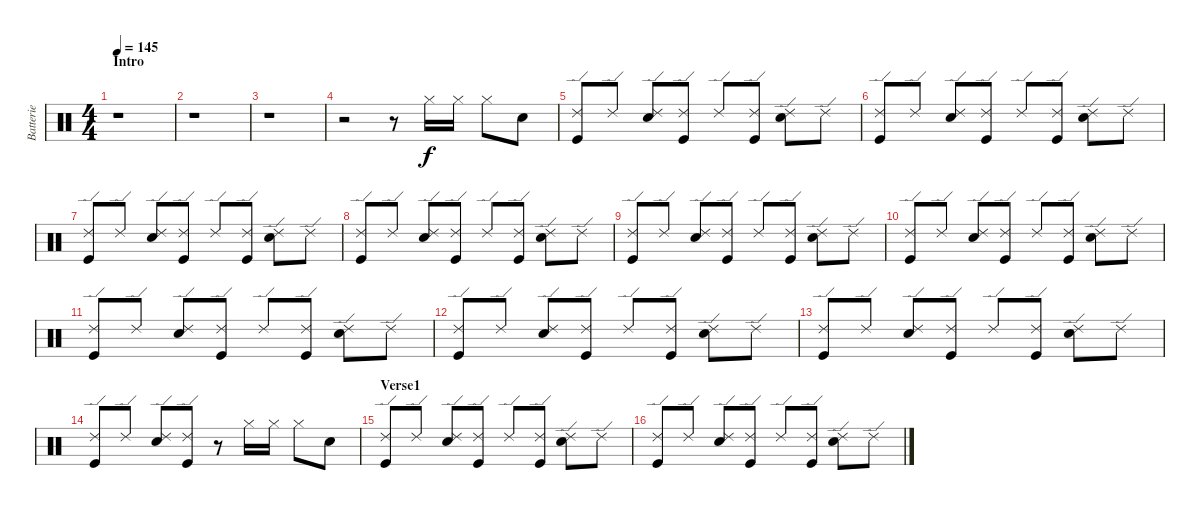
\track ("Batterie" "Batterie") {instrument percussion}
\staff {score}
\articulation defaults
\ts (4 4)
\section ("" "Intro")
\tempo 145
\clef neutral
\ks c
r.1{dy f} |
r.1 |
r.1 |
r.2 r.8 "Hi-Hat (closed)".16 "Hi-Hat (closed)".16 "Hi-Hat (closed)".8 "Electric Snare (hit)".8 |
("Ride (edge) 2" "Kick (hit)").8 "Ride (edge) 2".8 ("Ride (edge) 2" "Snare (hit) 2").8 ("Ride (edge) 2" "Kick (hit)").8 "Ride (edge) 2".8 ("Ride (edge) 2" "Kick (hit)").8 ("Ride (edge) 2" "Snare (hit) 2").8 "Ride (edge) 2".8 |
("Ride (edge) 2" "Kick (hit)").8 "Ride (edge) 2".8 ("Ride (edge) 2" "Snare (hit) 2").8 ("Ride (edge) 2" "Kick (hit)").8 "Ride (edge) 2".8 ("Ride (edge) 2" "Kick (hit)").8 ("Ride (edge) 2" "Snare (hit) 2").8 "Ride (edge) 2".8 |
("Ride (edge) 2" "Kick (hit)").8 "Ride (edge) 2".8 ("Ride (edge) 2" "Snare (hit) 2").8 ("Ride (edge) 2" "Kick (hit)").8 "Ride (edge) 2".8 ("Ride (edge) 2" "Kick (hit)").8 ("Ride (edge) 2" "Snare (hit) 2").8 "Ride (edge) 2".8 |
("Ride (edge) 2" "Kick (hit)").8 "Ride (edge) 2".8 ("Ride (edge) 2" "Snare (hit) 2").8 ("Ride (edge) 2" "Kick (hit)").8 "Ride (edge) 2".8 ("Ride (edge) 2" "Kick (hit)").8 ("Ride (edge) 2" "Snare (hit) 2").8 "Ride (edge) 2".8 |
("Ride (edge) 2" "Kick (hit)").8 "Ride (edge) 2".8 ("Ride (edge) 2" "Snare (hit) 2").8 ("Ride (edge) 2" "Kick (hit)").8 "Ride (edge) 2".8 ("Ride (edge) 2" "Kick (hit)").8 ("Ride (edge) 2" "Snare (hit) 2").8 "Ride (edge) 2".8 |
("Ride (edge) 2" "Kick (hit)").8 "Ride (edge) 2".8 ("Ride (edge) 2" "Snare (hit) 2").8 ("Ride (edge) 2" "Kick (hit)").8 "Ride (edge) 2".8 ("Ride (edge) 2" "Kick (hit)").8 ("Ride (edge) 2" "Snare (hit) 2").8 "Ride (edge) 2".8 |
("Ride (edge) 2" "Kick (hit)").8 "Ride (edge) 2".8 ("Ride (edge) 2" "Snare (hit) 2").8 ("Ride (edge) 2" "Kick (hit)").8 "Ride (edge) 2".8 ("Ride (edge) 2" "Kick (hit)").8 ("Ride (edge) 2" "Snare (hit) 2").8 "Ride (edge) 2".8 |
("Ride (edge) 2" "Kick (hit)").8 "Ride (edge) 2".8 ("Ride (edge) 2" "Snare (hit) 2").8 ("Ride (edge) 2" "Kick (hit)").8 "Ride (edge) 2".8 ("Ride (edge) 2" "Kick (hit)").8 ("Ride (edge) 2" "Snare (hit) 2").8 "Ride (edge) 2".8 |
("Ride (edge) 2" "Kick (hit)").8 "Ride (edge) 2".8 ("Ride (edge) 2" "Snare (hit) 2").8 ("Ride (edge) 2" "Kick (hit)").8 "Ride (edge) 2".8 ("Ride (edge) 2" "Kick (hit)").8 ("Ride (edge) 2" "Snare (hit) 2").8 "Ride (edge) 2".8 |
("Ride (edge) 2" "Kick (hit)").8 "Ride (edge) 2".8 ("Ride (edge) 2" "Snare (hit) 2").8 ("Ride (edge) 2" "Kick (hit)").8 r.8 "Hi-Hat (closed)".16 "Hi-Hat (closed)".16 "Hi-Hat (closed)".8 "Electric Snare (hit)".8 |
\section ("" "Verse1")
("Ride (edge) 2" "Kick (hit)").8 "Ride (edge) 2".8 ("Ride (edge) 2" "Snare (hit) 2").8 ("Ride (edge) 2" "Kick (hit)").8 "Ride (edge) 2".8 ("Ride (edge) 2" "Kick (hit)").8 ("Ride (edge) 2" "Snare (hit) 2").8 "Ride (edge) 2".8 |
("Ride (edge) 2" "Kick (hit)").8 "Ride (edge) 2".8 ("Ride (edge) 2" "Snare (hit) 2").8 ("Ride (edge) 2" "Kick (hit)").8 "Ride (edge) 2".8 ("Ride (edge) 2" "Kick (hit)").8 ("Ride (edge) 2" "Snare (hit) 2").8 "Ride (edge) 2".8
